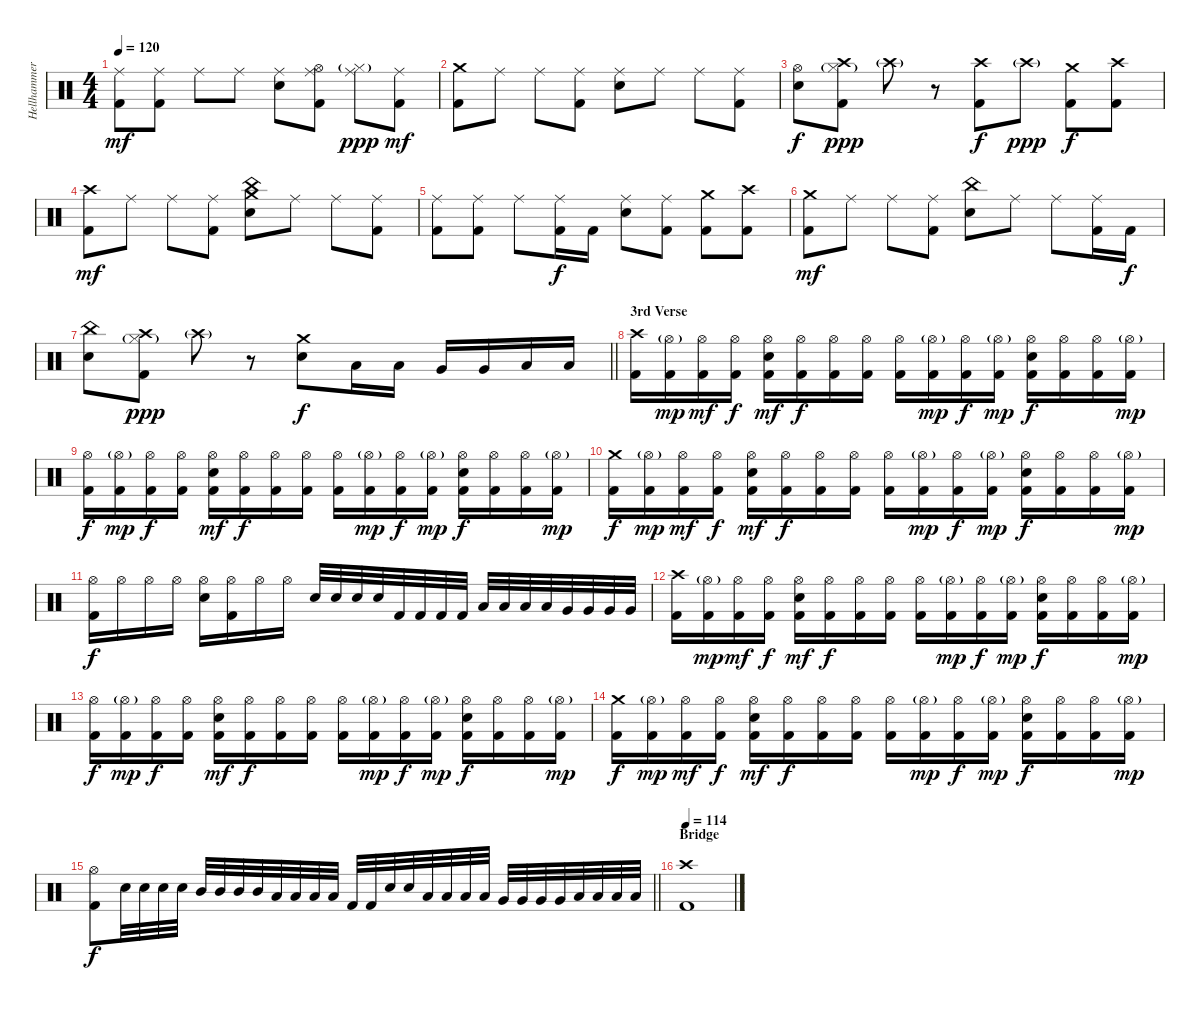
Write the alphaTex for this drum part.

\track ("Hellhammer" "Hellhammer") {instrument percussion}
\staff {score}
\articulation defaults
\ts (4 4)
\tempo 120
\clef neutral
\ks c
("Ride (middle)" "Kick (hit) 2").8{dy mf} ("Ride (middle)" "Kick (hit) 2").8 "Ride (middle)".8 "Ride (middle)".8 ("Ride (middle)" "Snare (hit) 2").8 ("Ride (middle)" "Hi-Hat (open)" "Kick (hit) 2").8 ("Ride (middle)" "Hi-Hat (closed)"{g}).8{dy ppp} ("Ride (middle)" "Kick (hit) 2").8{dy mf} |
("Crash medium (hit)" "Kick (hit) 2").8 "Ride (middle)".8 "Ride (middle)".8 ("Ride (middle)" "Kick (hit) 2").8 ("Ride (middle)" "Snare (hit) 2").8 "Ride (middle)".8 "Ride (middle)".8 ("Ride (middle)" "Kick (hit) 2").8 |
("Hi-Hat (open)" "Snare (hit) 2").8{dy f} ("Crash high (hit)" "Hi-Hat (closed)"{g} "Kick (hit) 2").8{dy ppp} "Crash high (hit)"{g}.8 r.8 ("Crash high (hit)" "Kick (hit) 2").8{dy f} "Crash high (hit)"{g}.8{dy ppp} ("Crash medium (hit)" "Kick (hit) 2").8{dy f} ("Crash high (hit)" "Kick (hit) 2").8 |
("Crash high (hit)" "Kick (hit) 2").8{dy mf} "Ride (middle)".8 "Ride (middle)".8 ("Ride (middle)" "Kick (hit) 2").8 ("China (hit)" "Crash medium (hit)" "Snare (hit) 2").8 "Ride (middle)".8 "Ride (middle)".8 ("Ride (middle)" "Kick (hit) 2").8 |
("Ride (middle)" "Kick (hit) 2").8 ("Ride (middle)" "Kick (hit) 2").8 "Ride (middle)".8 ("Ride (middle)" "Kick (hit) 2").16{dy f} "Kick (hit) 2".16 ("Ride (middle)" "Snare (hit) 2").8 ("Ride (middle)" "Kick (hit) 2").8 ("Crash medium (hit)" "Kick (hit) 2").8 ("Crash high (hit)" "Kick (hit) 2").8 |
("Crash medium (hit)" "Kick (hit) 2").8{dy mf} "Ride (middle)".8 "Ride (middle)".8 ("Ride (middle)" "Kick (hit) 2").8 ("China (hit)" "Snare (hit) 2").8 "Ride (middle)".8 "Ride (middle)".8 ("Ride (middle)" "Kick (hit) 2").16 "Kick (hit) 2".16{dy f} |
\barLineRight lightlight
("China (hit)" "Snare (hit) 2").8 ("Crash high (hit)" "Hi-Hat (closed)"{g} "Kick (hit) 2").8{dy ppp} "Crash high (hit)"{g}.8 r.8 ("Crash medium (hit)" "Snare (hit) 2").8{dy f} "Low Tom (hit)".16 "Low Tom (hit)".16 "Very Low Tom (hit)".16 "Very Low Tom (hit)".16 "Low Floor Tom (hit)".16 "Low Floor Tom (hit)".16 |
\section ("" "3rd Verse")
("Crash high (hit)" "Kick (hit) 2").16 ("Hi-Hat (open)"{g} "Kick (hit) 2").16{dy mp} ("Hi-Hat (open)" "Kick (hit) 2").16{dy mf} ("Hi-Hat (open)" "Kick (hit) 2").16{dy f} ("Hi-Hat (open)" "Snare (hit) 2" "Kick (hit) 2").16{dy mf} ("Hi-Hat (open)" "Kick (hit) 2").16{dy f} ("Hi-Hat (open)" "Kick (hit) 2").16 ("Hi-Hat (open)" "Kick (hit) 2").16 ("Hi-Hat (open)" "Kick (hit) 2").16 ("Hi-Hat (open)"{g} "Kick (hit) 2").16{dy mp} ("Hi-Hat (open)" "Kick (hit) 2").16{dy f} ("Hi-Hat (open)"{g} "Kick (hit) 2").16{dy mp} ("Hi-Hat (open)" "Snare (hit) 2" "Kick (hit) 2").16{dy f} ("Hi-Hat (open)" "Kick (hit) 2").16 ("Hi-Hat (open)" "Kick (hit) 2").16 ("Hi-Hat (open)"{g} "Kick (hit) 2").16{dy mp} |
("Hi-Hat (open)" "Kick (hit) 2").16{dy f} ("Hi-Hat (open)"{g} "Kick (hit) 2").16{dy mp} ("Hi-Hat (open)" "Kick (hit) 2").16{dy f} ("Hi-Hat (open)" "Kick (hit) 2").16 ("Hi-Hat (open)" "Snare (hit) 2" "Kick (hit) 2").16{dy mf} ("Hi-Hat (open)" "Kick (hit) 2").16{dy f} ("Hi-Hat (open)" "Kick (hit) 2").16 ("Hi-Hat (open)" "Kick (hit) 2").16 ("Hi-Hat (open)" "Kick (hit) 2").16 ("Hi-Hat (open)"{g} "Kick (hit) 2").16{dy mp} ("Hi-Hat (open)" "Kick (hit) 2").16{dy f} ("Hi-Hat (open)"{g} "Kick (hit) 2").16{dy mp} ("Hi-Hat (open)" "Snare (hit) 2" "Kick (hit) 2").16{dy f} ("Hi-Hat (open)" "Kick (hit) 2").16 ("Hi-Hat (open)" "Kick (hit) 2").16 ("Hi-Hat (open)"{g} "Kick (hit) 2").16{dy mp} |
("Crash medium (hit)" "Kick (hit) 2").16{dy f} ("Hi-Hat (open)"{g} "Kick (hit) 2").16{dy mp} ("Hi-Hat (open)" "Kick (hit) 2").16{dy mf} ("Hi-Hat (open)" "Kick (hit) 2").16{dy f} ("Hi-Hat (open)" "Snare (hit) 2" "Kick (hit) 2").16{dy mf} ("Hi-Hat (open)" "Kick (hit) 2").16{dy f} ("Hi-Hat (open)" "Kick (hit) 2").16 ("Hi-Hat (open)" "Kick (hit) 2").16 ("Hi-Hat (open)" "Kick (hit) 2").16 ("Hi-Hat (open)"{g} "Kick (hit) 2").16{dy mp} ("Hi-Hat (open)" "Kick (hit) 2").16{dy f} ("Hi-Hat (open)"{g} "Kick (hit) 2").16{dy mp} ("Hi-Hat (open)" "Snare (hit) 2" "Kick (hit) 2").16{dy f} ("Hi-Hat (open)" "Kick (hit) 2").16 ("Hi-Hat (open)" "Kick (hit) 2").16 ("Hi-Hat (open)"{g} "Kick (hit) 2").16{dy mp} |
("Hi-Hat (open)" "Kick (hit) 2").16{dy f} "Hi-Hat (open)".16 "Hi-Hat (open)".16 "Hi-Hat (open)".16 ("Hi-Hat (open)" "Snare (hit) 2").16 ("Hi-Hat (open)" "Kick (hit) 2").16 "Hi-Hat (open)".16 "Hi-Hat (open)".16 "Snare (hit) 2".32 "Snare (hit) 2".32 "Snare (hit) 2".32 "Snare (hit) 2".32 "Kick (hit) 2".32 "Kick (hit) 2".32 "Kick (hit) 2".32 "Kick (hit) 2".32 "Low Tom (hit)".32 "Low Tom (hit)".32 "Low Tom (hit)".32 "Low Tom (hit)".32 "Very Low Tom (hit)".32 "Very Low Tom (hit)".32 "Very Low Tom (hit)".32 "Very Low Tom (hit)".32 |
("Crash high (hit)" "Kick (hit) 2").16 ("Hi-Hat (open)"{g} "Kick (hit) 2").16{dy mp} ("Hi-Hat (open)" "Kick (hit) 2").16{dy mf} ("Hi-Hat (open)" "Kick (hit) 2").16{dy f} ("Hi-Hat (open)" "Snare (hit) 2" "Kick (hit) 2").16{dy mf} ("Hi-Hat (open)" "Kick (hit) 2").16{dy f} ("Hi-Hat (open)" "Kick (hit) 2").16 ("Hi-Hat (open)" "Kick (hit) 2").16 ("Hi-Hat (open)" "Kick (hit) 2").16 ("Hi-Hat (open)"{g} "Kick (hit) 2").16{dy mp} ("Hi-Hat (open)" "Kick (hit) 2").16{dy f} ("Hi-Hat (open)"{g} "Kick (hit) 2").16{dy mp} ("Hi-Hat (open)" "Snare (hit) 2" "Kick (hit) 2").16{dy f} ("Hi-Hat (open)" "Kick (hit) 2").16 ("Hi-Hat (open)" "Kick (hit) 2").16 ("Hi-Hat (open)"{g} "Kick (hit) 2").16{dy mp} |
("Hi-Hat (open)" "Kick (hit) 2").16{dy f} ("Hi-Hat (open)"{g} "Kick (hit) 2").16{dy mp} ("Hi-Hat (open)" "Kick (hit) 2").16{dy f} ("Hi-Hat (open)" "Kick (hit) 2").16 ("Hi-Hat (open)" "Snare (hit) 2" "Kick (hit) 2").16{dy mf} ("Hi-Hat (open)" "Kick (hit) 2").16{dy f} ("Hi-Hat (open)" "Kick (hit) 2").16 ("Hi-Hat (open)" "Kick (hit) 2").16 ("Hi-Hat (open)" "Kick (hit) 2").16 ("Hi-Hat (open)"{g} "Kick (hit) 2").16{dy mp} ("Hi-Hat (open)" "Kick (hit) 2").16{dy f} ("Hi-Hat (open)"{g} "Kick (hit) 2").16{dy mp} ("Hi-Hat (open)" "Snare (hit) 2" "Kick (hit) 2").16{dy f} ("Hi-Hat (open)" "Kick (hit) 2").16 ("Hi-Hat (open)" "Kick (hit) 2").16 ("Hi-Hat (open)"{g} "Kick (hit) 2").16{dy mp} |
("Crash medium (hit)" "Kick (hit) 2").16{dy f} ("Hi-Hat (open)"{g} "Kick (hit) 2").16{dy mp} ("Hi-Hat (open)" "Kick (hit) 2").16{dy mf} ("Hi-Hat (open)" "Kick (hit) 2").16{dy f} ("Hi-Hat (open)" "Snare (hit) 2" "Kick (hit) 2").16{dy mf} ("Hi-Hat (open)" "Kick (hit) 2").16{dy f} ("Hi-Hat (open)" "Kick (hit) 2").16 ("Hi-Hat (open)" "Kick (hit) 2").16 ("Hi-Hat (open)" "Kick (hit) 2").16 ("Hi-Hat (open)"{g} "Kick (hit) 2").16{dy mp} ("Hi-Hat (open)" "Kick (hit) 2").16{dy f} ("Hi-Hat (open)"{g} "Kick (hit) 2").16{dy mp} ("Hi-Hat (open)" "Snare (hit) 2" "Kick (hit) 2").16{dy f} ("Hi-Hat (open)" "Kick (hit) 2").16 ("Hi-Hat (open)" "Kick (hit) 2").16 ("Hi-Hat (open)"{g} "Kick (hit) 2").16{dy mp} |
\barLineRight lightlight
("Hi-Hat (open)" "Kick (hit) 2").8{dy f} "Snare (hit) 2".32 "Snare (hit) 2".32 "Snare (hit) 2".32 "Snare (hit) 2".32 "Mid Tom (hit)".32 "Mid Tom (hit)".32 "Mid Tom (hit)".32 "Mid Tom (hit)".32 "Low Tom (hit)".32 "Low Tom (hit)".32 "Low Tom (hit)".32 "Low Tom (hit)".32 "Kick (hit) 2".32 "Kick (hit) 2".32 "Snare (hit) 2".32 "Snare (hit) 2".32 "Low Tom (hit)".32 "Low Tom (hit)".32 "Low Tom (hit)".32 "Low Tom (hit)".32 "Very Low Tom (hit)".32 "Very Low Tom (hit)".32 "Very Low Tom (hit)".32 "Very Low Tom (hit)".32 "Low Floor Tom (hit)".32 "Low Floor Tom (hit)".32 "Low Floor Tom (hit)".32 "Low Floor Tom (hit)".32 |
\section ("" "Bridge")
\tempo 114
("Crash high (hit)" "Kick (hit) 2").1
